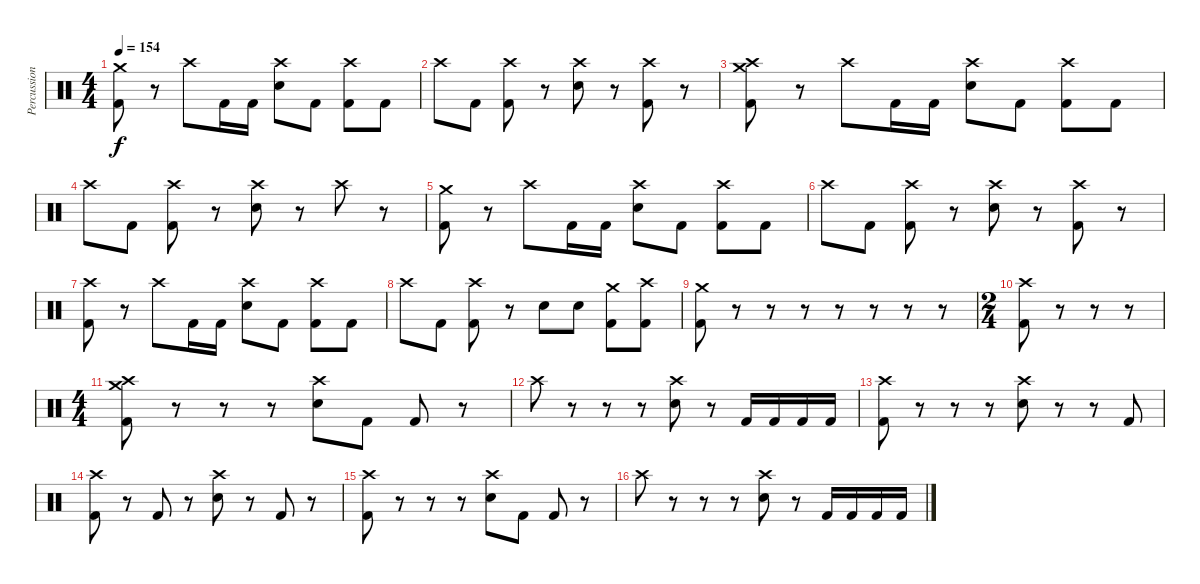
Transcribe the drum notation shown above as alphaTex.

\track ("Percussion" "Percussion") {instrument percussion}
\staff {score}
\articulation defaults
\ts (4 4)
\tempo 154
\clef neutral
\ks c
("Crash medium (hit)" "Kick (hit) 2").8{dy f} r.8 "Crash high (hit)".8 "Kick (hit) 2".16 "Kick (hit) 2".16 ("Crash high (hit)" "Snare (hit) 2").8 "Kick (hit) 2".8 ("Crash high (hit)" "Kick (hit) 2").8 "Kick (hit) 2".8 |
"Crash high (hit)".8 "Kick (hit) 2".8 ("Crash high (hit)" "Kick (hit) 2").8 r.8 ("Crash high (hit)" "Snare (hit) 2").8 r.8 ("Crash high (hit)" "Kick (hit) 2").8 r.8 |
("Crash high (hit)" "Crash medium (hit)" "Kick (hit) 2").8 r.8 "Crash high (hit)".8 "Kick (hit) 2".16 "Kick (hit) 2".16 ("Crash high (hit)" "Snare (hit) 2").8 "Kick (hit) 2".8 ("Crash high (hit)" "Kick (hit) 2").8 "Kick (hit) 2".8 |
"Crash high (hit)".8 "Kick (hit) 2".8 ("Crash high (hit)" "Kick (hit) 2").8 r.8 ("Crash high (hit)" "Snare (hit) 2").8 r.8 "Crash high (hit)".8 r.8 |
("Crash medium (hit)" "Kick (hit) 2").8 r.8 "Crash high (hit)".8 "Kick (hit) 2".16 "Kick (hit) 2".16 ("Crash high (hit)" "Snare (hit) 2").8 "Kick (hit) 2".8 ("Crash high (hit)" "Kick (hit) 2").8 "Kick (hit) 2".8 |
"Crash high (hit)".8 "Kick (hit) 2".8 ("Crash high (hit)" "Kick (hit) 2").8 r.8 ("Crash high (hit)" "Snare (hit) 2").8 r.8 ("Crash high (hit)" "Kick (hit) 2").8 r.8 |
("Crash high (hit)" "Kick (hit) 2").8 r.8 "Crash high (hit)".8 "Kick (hit) 2".16 "Kick (hit) 2".16 ("Crash high (hit)" "Snare (hit) 2").8 "Kick (hit) 2".8 ("Crash high (hit)" "Kick (hit) 2").8 "Kick (hit) 2".8 |
"Crash high (hit)".8 "Kick (hit) 2".8 ("Crash high (hit)" "Kick (hit) 2").8 r.8 "Snare (hit) 2".8 "Snare (hit) 2".8 ("Crash medium (hit)" "Kick (hit) 2").8 ("Crash high (hit)" "Kick (hit) 2").8 |
("Crash medium (hit)" "Kick (hit) 2").8 r.8 r.8 r.8 r.8 r.8 r.8 r.8 |
\ts (2 4)
("Crash high (hit)" "Kick (hit) 2").8 r.8 r.8 r.8 |
\ts (4 4)
("Crash medium (hit)" "Crash high (hit)" "Kick (hit) 2").8 r.8 r.8 r.8 ("Crash high (hit)" "Snare (hit) 2").8 "Kick (hit) 2".8 "Kick (hit) 2".8 r.8 |
"Crash high (hit)".8 r.8 r.8 r.8 ("Crash high (hit)" "Snare (hit) 2").8 r.8 "Kick (hit) 2".16 "Kick (hit) 2".16 "Kick (hit) 2".16 "Kick (hit) 2".16 |
("Crash high (hit)" "Kick (hit) 2").8 r.8 r.8 r.8 ("Crash high (hit)" "Snare (hit) 2").8 r.8 r.8 "Kick (hit) 2".8 |
("Crash high (hit)" "Kick (hit) 2").8 r.8 "Kick (hit) 2".8 r.8 ("Crash high (hit)" "Snare (hit) 2").8 r.8 "Kick (hit) 2".8 r.8 |
("Crash high (hit)" "Kick (hit) 2").8 r.8 r.8 r.8 ("Crash high (hit)" "Snare (hit) 2").8 "Kick (hit) 2".8 "Kick (hit) 2".8 r.8 |
"Crash high (hit)".8 r.8 r.8 r.8 ("Crash high (hit)" "Snare (hit) 2").8 r.8 "Kick (hit) 2".16 "Kick (hit) 2".16 "Kick (hit) 2".16 "Kick (hit) 2".16
